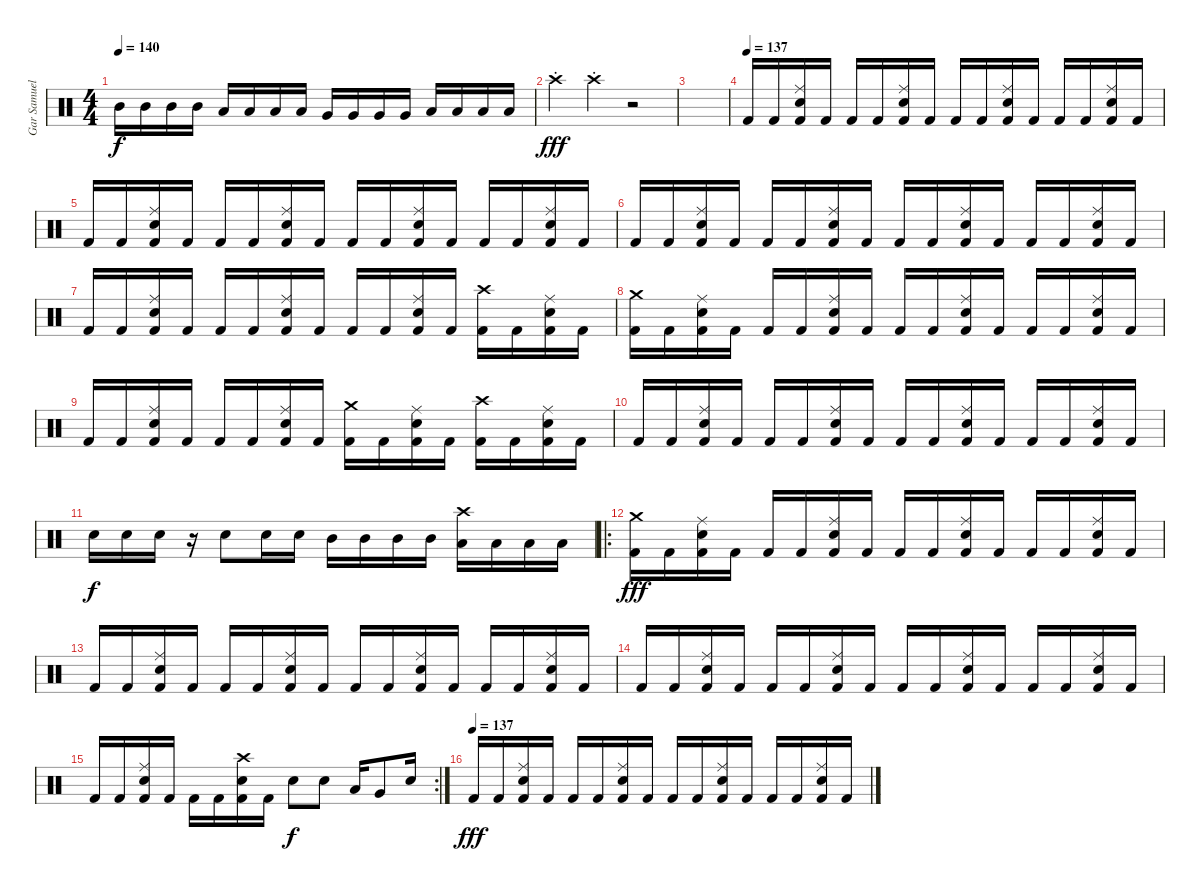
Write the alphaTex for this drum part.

\track ("Gar Samuelson" "Gar Samuel") {instrument percussion}
\staff {score}
\articulation defaults
\ts (4 4)
\tempo 140
\clef neutral
\ks c "Mid Tom (hit)".16{dy f} "Mid Tom (hit)".16 "Mid Tom (hit)".16 "Mid Tom (hit)".16 "Low Tom (hit)".16 "Low Tom (hit)".16 "Low Tom (hit)".16 "Low Tom (hit)".16 "Very Low Tom (hit)".16 "Very Low Tom (hit)".16 "Very Low Tom (hit)".16 "Very Low Tom (hit)".16 "Low Floor Tom (hit)".16 "Low Floor Tom (hit)".16 "Low Floor Tom (hit)".16 "Low Floor Tom (hit)".16
|
"Crash high (hit)"{st}.4{dy fff} "Crash high (hit)"{st}.4 r.2 |
|
\tempo (137)
"Kick (hit) 2".16 "Kick (hit) 2".16 ("Ride (middle)" "Electric Snare (hit)" "Kick (hit) 2").16 "Kick (hit) 2".16 "Kick (hit) 2".16 "Kick (hit) 2".16 ("Ride (middle)" "Electric Snare (hit)" "Kick (hit) 2").16 "Kick (hit) 2".16 "Kick (hit) 2".16 "Kick (hit) 2".16 ("Ride (middle)" "Electric Snare (hit)" "Kick (hit) 2").16 "Kick (hit) 2".16 "Kick (hit) 2".16 "Kick (hit) 2".16 ("Ride (middle)" "Electric Snare (hit)" "Kick (hit) 2").16 "Kick (hit) 2".16 |
"Kick (hit) 2".16 "Kick (hit) 2".16 ("Ride (middle)" "Electric Snare (hit)" "Kick (hit) 2").16 "Kick (hit) 2".16 "Kick (hit) 2".16 "Kick (hit) 2".16 ("Ride (middle)" "Electric Snare (hit)" "Kick (hit) 2").16 "Kick (hit) 2".16 "Kick (hit) 2".16 "Kick (hit) 2".16 ("Ride (middle)" "Electric Snare (hit)" "Kick (hit) 2").16 "Kick (hit) 2".16 "Kick (hit) 2".16 "Kick (hit) 2".16 ("Ride (middle)" "Electric Snare (hit)" "Kick (hit) 2").16 "Kick (hit) 2".16 |
"Kick (hit) 2".16 "Kick (hit) 2".16 ("Ride (middle)" "Electric Snare (hit)" "Kick (hit) 2").16 "Kick (hit) 2".16 "Kick (hit) 2".16 "Kick (hit) 2".16 ("Ride (middle)" "Electric Snare (hit)" "Kick (hit) 2").16 "Kick (hit) 2".16 "Kick (hit) 2".16 "Kick (hit) 2".16 ("Ride (middle)" "Electric Snare (hit)" "Kick (hit) 2").16 "Kick (hit) 2".16 "Kick (hit) 2".16 "Kick (hit) 2".16 ("Ride (middle)" "Electric Snare (hit)" "Kick (hit) 2").16 "Kick (hit) 2".16 |
"Kick (hit) 2".16 "Kick (hit) 2".16 ("Ride (middle)" "Electric Snare (hit)" "Kick (hit) 2").16 "Kick (hit) 2".16 "Kick (hit) 2".16 "Kick (hit) 2".16 ("Ride (middle)" "Electric Snare (hit)" "Kick (hit) 2").16 "Kick (hit) 2".16 "Kick (hit) 2".16 "Kick (hit) 2".16 ("Ride (middle)" "Electric Snare (hit)" "Kick (hit) 2").16 "Kick (hit) 2".16 ("Crash high (hit)" "Kick (hit) 2").16 "Kick (hit) 2".16 ("Ride (middle)" "Electric Snare (hit)" "Kick (hit) 2").16 "Kick (hit) 2".16 |
("Crash medium (hit)" "Kick (hit) 2").16 "Kick (hit) 2".16 ("Ride (middle)" "Electric Snare (hit)" "Kick (hit) 2").16 "Kick (hit) 2".16 "Kick (hit) 2".16 "Kick (hit) 2".16 ("Ride (middle)" "Electric Snare (hit)" "Kick (hit) 2").16 "Kick (hit) 2".16 "Kick (hit) 2".16 "Kick (hit) 2".16 ("Ride (middle)" "Electric Snare (hit)" "Kick (hit) 2").16 "Kick (hit) 2".16 "Kick (hit) 2".16 "Kick (hit) 2".16 ("Ride (middle)" "Electric Snare (hit)" "Kick (hit) 2").16 "Kick (hit) 2".16 |
"Kick (hit) 2".16 "Kick (hit) 2".16 ("Ride (middle)" "Electric Snare (hit)" "Kick (hit) 2").16 "Kick (hit) 2".16 "Kick (hit) 2".16 "Kick (hit) 2".16 ("Ride (middle)" "Electric Snare (hit)" "Kick (hit) 2").16 "Kick (hit) 2".16 ("Crash medium (hit)" "Kick (hit) 2").16 "Kick (hit) 2".16 ("Ride (middle)" "Electric Snare (hit)" "Kick (hit) 2").16 "Kick (hit) 2".16 ("Crash high (hit)" "Kick (hit) 2").16 "Kick (hit) 2".16 ("Ride (middle)" "Electric Snare (hit)" "Kick (hit) 2").16 "Kick (hit) 2".16 |
"Kick (hit) 2".16 "Kick (hit) 2".16 ("Ride (middle)" "Electric Snare (hit)" "Kick (hit) 2").16 "Kick (hit) 2".16 "Kick (hit) 2".16 "Kick (hit) 2".16 ("Ride (middle)" "Electric Snare (hit)" "Kick (hit) 2").16 "Kick (hit) 2".16 "Kick (hit) 2".16 "Kick (hit) 2".16 ("Ride (middle)" "Electric Snare (hit)" "Kick (hit) 2").16 "Kick (hit) 2".16 "Kick (hit) 2".16 "Kick (hit) 2".16 ("Ride (middle)" "Electric Snare (hit)" "Kick (hit) 2").16 "Kick (hit) 2".16 |
"Snare (hit) 2".16{dy f} "Snare (hit) 2".16 "Snare (hit) 2".16 r.16 "Electric Snare (hit)".8 "Snare (hit) 2".16 "Snare (hit) 2".16 "Mid Tom (hit)".16 "Mid Tom (hit)".16 "Mid Tom (hit)".16 "Mid Tom (hit)".16 ("Crash high (hit)" "Low Tom (hit)").16 "Low Tom (hit)".16 "Low Tom (hit)".16 "Low Tom (hit)".16 |
\ro
("Crash medium (hit)" "Kick (hit) 2").16{dy fff} "Kick (hit) 2".16 ("Ride (middle)" "Electric Snare (hit)" "Kick (hit) 2").16 "Kick (hit) 2".16 "Kick (hit) 2".16 "Kick (hit) 2".16 ("Ride (middle)" "Electric Snare (hit)" "Kick (hit) 2").16 "Kick (hit) 2".16 "Kick (hit) 2".16 "Kick (hit) 2".16 ("Ride (middle)" "Electric Snare (hit)" "Kick (hit) 2").16 "Kick (hit) 2".16 "Kick (hit) 2".16 "Kick (hit) 2".16 ("Ride (middle)" "Electric Snare (hit)" "Kick (hit) 2").16 "Kick (hit) 2".16 |
"Kick (hit) 2".16 "Kick (hit) 2".16 ("Ride (middle)" "Electric Snare (hit)" "Kick (hit) 2").16 "Kick (hit) 2".16 "Kick (hit) 2".16 "Kick (hit) 2".16 ("Ride (middle)" "Electric Snare (hit)" "Kick (hit) 2").16 "Kick (hit) 2".16 "Kick (hit) 2".16 "Kick (hit) 2".16 ("Ride (middle)" "Electric Snare (hit)" "Kick (hit) 2").16 "Kick (hit) 2".16 "Kick (hit) 2".16 "Kick (hit) 2".16 ("Ride (middle)" "Electric Snare (hit)" "Kick (hit) 2").16 "Kick (hit) 2".16 |
"Kick (hit) 2".16 "Kick (hit) 2".16 ("Ride (middle)" "Electric Snare (hit)" "Kick (hit) 2").16 "Kick (hit) 2".16 "Kick (hit) 2".16 "Kick (hit) 2".16 ("Ride (middle)" "Electric Snare (hit)" "Kick (hit) 2").16 "Kick (hit) 2".16 "Kick (hit) 2".16 "Kick (hit) 2".16 ("Ride (middle)" "Electric Snare (hit)" "Kick (hit) 2").16 "Kick (hit) 2".16 "Kick (hit) 2".16 "Kick (hit) 2".16 ("Ride (middle)" "Electric Snare (hit)" "Kick (hit) 2").16 "Kick (hit) 2".16 |
\rc 2 "Kick (hit) 2".16 "Kick (hit) 2".16
("Ride (middle)" "Electric Snare (hit)" "Kick (hit) 2").16 "Kick (hit) 2".16 "Kick (hit) 2".16 "Kick (hit) 2".16 ("Crash high (hit)" "Electric Snare (hit)" "Kick (hit) 2").16 "Kick (hit) 2".16 "Electric Snare (hit)".8{dy f} "Electric Snare (hit)".8 "Low Tom (hit)".16 "Very Low Tom (hit)".8 "Electric Snare (hit)".16 |
\tempo (137)
"Kick (hit) 2".16{dy fff} "Kick (hit) 2".16 ("Ride (middle)" "Electric Snare (hit)" "Kick (hit) 2").16 "Kick (hit) 2".16 "Kick (hit) 2".16 "Kick (hit) 2".16 ("Ride (middle)" "Electric Snare (hit)" "Kick (hit) 2").16 "Kick (hit) 2".16 "Kick (hit) 2".16 "Kick (hit) 2".16 ("Ride (middle)" "Electric Snare (hit)" "Kick (hit) 2").16 "Kick (hit) 2".16 "Kick (hit) 2".16 "Kick (hit) 2".16 ("Ride (middle)" "Electric Snare (hit)" "Kick (hit) 2").16 "Kick (hit) 2".16
